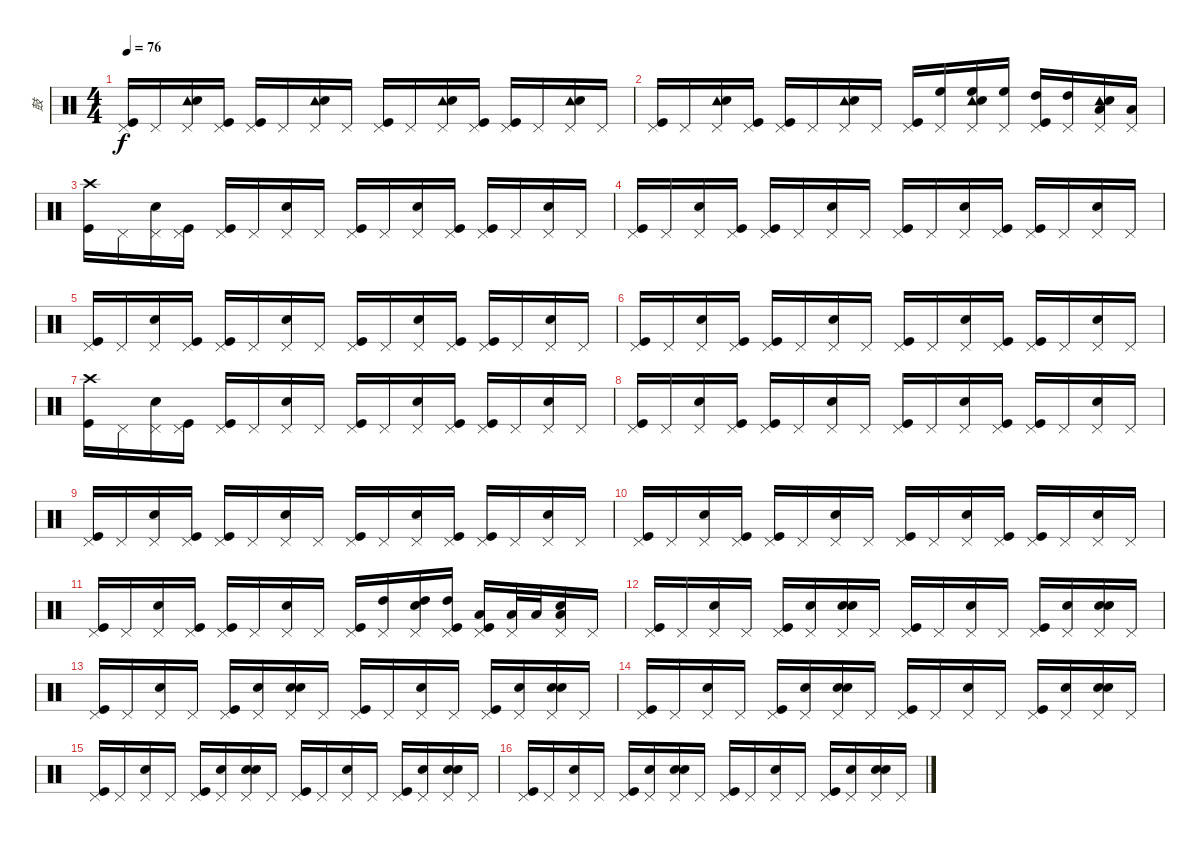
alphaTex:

\track ("鼓" "鼓") {instrument percussion}
\staff {score}
\articulation defaults
\ts (4 4)
\tempo 76
\clef neutral
\ks c
("Pedal Hi-Hat (hit)" "Kick (hit)").16{dy f} "Pedal Hi-Hat (hit)".16 ("Pedal Hi-Hat (hit)" "Tambourine (hit)" "Snare (hit) 2").16 ("Pedal Hi-Hat (hit)" "Kick (hit)").16 ("Pedal Hi-Hat (hit)" "Kick (hit)").16 "Pedal Hi-Hat (hit)".16 ("Pedal Hi-Hat (hit)" "Tambourine (hit)" "Snare (hit) 2").16 "Pedal Hi-Hat (hit)".16 ("Pedal Hi-Hat (hit)" "Kick (hit)").16 "Pedal Hi-Hat (hit)".16 ("Pedal Hi-Hat (hit)" "Tambourine (hit)" "Snare (hit) 2").16 ("Pedal Hi-Hat (hit)" "Kick (hit)").16 ("Pedal Hi-Hat (hit)" "Kick (hit)").16 "Pedal Hi-Hat (hit)".16 ("Pedal Hi-Hat (hit)" "Tambourine (hit)" "Snare (hit) 2").16 "Pedal Hi-Hat (hit)".16 |
("Pedal Hi-Hat (hit)" "Kick (hit)").16 "Pedal Hi-Hat (hit)".16 ("Pedal Hi-Hat (hit)" "Tambourine (hit)" "Snare (hit) 2").16 ("Pedal Hi-Hat (hit)" "Kick (hit)").16 ("Pedal Hi-Hat (hit)" "Kick (hit)").16 "Pedal Hi-Hat (hit)".16 ("Pedal Hi-Hat (hit)" "Tambourine (hit)" "Snare (hit) 2").16 "Pedal Hi-Hat (hit)".16 ("Pedal Hi-Hat (hit)" "Kick (hit)").16 ("Pedal Hi-Hat (hit)" "High Floor Tom (hit)").16 ("Pedal Hi-Hat (hit)" "Tambourine (hit)" "Snare (hit) 2" "High Floor Tom (hit)").16 ("Pedal Hi-Hat (hit)" "High Floor Tom (hit)").16 ("Pedal Hi-Hat (hit)" "Kick (hit)" "High Tom (hit)").16 ("Pedal Hi-Hat (hit)" "High Tom (hit)").16 ("Pedal Hi-Hat (hit)" "Tambourine (hit)" "Snare (hit) 2" "Low Tom (hit)").16 ("Pedal Hi-Hat (hit)" "Low Tom (hit)").16 |
("Crash high (hit)" "Kick (hit)").16 "Pedal Hi-Hat (hit)".16 ("Pedal Hi-Hat (hit)" "Snare (hit) 2").16 ("Pedal Hi-Hat (hit)" "Kick (hit)").16 ("Pedal Hi-Hat (hit)" "Kick (hit)").16 "Pedal Hi-Hat (hit)".16 ("Pedal Hi-Hat (hit)" "Snare (hit) 2").16 "Pedal Hi-Hat (hit)".16 ("Pedal Hi-Hat (hit)" "Kick (hit)").16 "Pedal Hi-Hat (hit)".16 ("Pedal Hi-Hat (hit)" "Snare (hit) 2").16 ("Pedal Hi-Hat (hit)" "Kick (hit)").16 ("Pedal Hi-Hat (hit)" "Kick (hit)").16 "Pedal Hi-Hat (hit)".16 ("Pedal Hi-Hat (hit)" "Snare (hit) 2").16 "Pedal Hi-Hat (hit)".16 |
("Pedal Hi-Hat (hit)" "Kick (hit)").16 "Pedal Hi-Hat (hit)".16 ("Pedal Hi-Hat (hit)" "Snare (hit) 2").16 ("Pedal Hi-Hat (hit)" "Kick (hit)").16 ("Pedal Hi-Hat (hit)" "Kick (hit)").16 "Pedal Hi-Hat (hit)".16 ("Pedal Hi-Hat (hit)" "Snare (hit) 2").16 "Pedal Hi-Hat (hit)".16 ("Pedal Hi-Hat (hit)" "Kick (hit)").16 "Pedal Hi-Hat (hit)".16 ("Pedal Hi-Hat (hit)" "Snare (hit) 2").16 ("Pedal Hi-Hat (hit)" "Kick (hit)").16 ("Pedal Hi-Hat (hit)" "Kick (hit)").16 "Pedal Hi-Hat (hit)".16 ("Pedal Hi-Hat (hit)" "Snare (hit) 2").16 "Pedal Hi-Hat (hit)".16 |
("Pedal Hi-Hat (hit)" "Kick (hit)").16 "Pedal Hi-Hat (hit)".16 ("Pedal Hi-Hat (hit)" "Snare (hit) 2").16 ("Pedal Hi-Hat (hit)" "Kick (hit)").16 ("Pedal Hi-Hat (hit)" "Kick (hit)").16 "Pedal Hi-Hat (hit)".16 ("Pedal Hi-Hat (hit)" "Snare (hit) 2").16 "Pedal Hi-Hat (hit)".16 ("Pedal Hi-Hat (hit)" "Kick (hit)").16 "Pedal Hi-Hat (hit)".16 ("Pedal Hi-Hat (hit)" "Snare (hit) 2").16 ("Pedal Hi-Hat (hit)" "Kick (hit)").16 ("Pedal Hi-Hat (hit)" "Kick (hit)").16 "Pedal Hi-Hat (hit)".16 ("Pedal Hi-Hat (hit)" "Snare (hit) 2").16 "Pedal Hi-Hat (hit)".16 |
("Pedal Hi-Hat (hit)" "Kick (hit)").16 "Pedal Hi-Hat (hit)".16 ("Pedal Hi-Hat (hit)" "Snare (hit) 2").16 ("Pedal Hi-Hat (hit)" "Kick (hit)").16 ("Pedal Hi-Hat (hit)" "Kick (hit)").16 "Pedal Hi-Hat (hit)".16 ("Pedal Hi-Hat (hit)" "Snare (hit) 2").16 "Pedal Hi-Hat (hit)".16 ("Pedal Hi-Hat (hit)" "Kick (hit)").16 "Pedal Hi-Hat (hit)".16 ("Pedal Hi-Hat (hit)" "Snare (hit) 2").16 ("Pedal Hi-Hat (hit)" "Kick (hit)").16 ("Pedal Hi-Hat (hit)" "Kick (hit)").16 "Pedal Hi-Hat (hit)".16 ("Pedal Hi-Hat (hit)" "Snare (hit) 2").16 "Pedal Hi-Hat (hit)".16 |
("Crash high (hit)" "Kick (hit)").16 "Pedal Hi-Hat (hit)".16 ("Pedal Hi-Hat (hit)" "Snare (hit) 2").16 ("Pedal Hi-Hat (hit)" "Kick (hit)").16 ("Pedal Hi-Hat (hit)" "Kick (hit)").16 "Pedal Hi-Hat (hit)".16 ("Pedal Hi-Hat (hit)" "Snare (hit) 2").16 "Pedal Hi-Hat (hit)".16 ("Pedal Hi-Hat (hit)" "Kick (hit)").16 "Pedal Hi-Hat (hit)".16 ("Pedal Hi-Hat (hit)" "Snare (hit) 2").16 ("Pedal Hi-Hat (hit)" "Kick (hit)").16 ("Pedal Hi-Hat (hit)" "Kick (hit)").16 "Pedal Hi-Hat (hit)".16 ("Pedal Hi-Hat (hit)" "Snare (hit) 2").16 "Pedal Hi-Hat (hit)".16 |
("Pedal Hi-Hat (hit)" "Kick (hit)").16 "Pedal Hi-Hat (hit)".16 ("Pedal Hi-Hat (hit)" "Snare (hit) 2").16 ("Pedal Hi-Hat (hit)" "Kick (hit)").16 ("Pedal Hi-Hat (hit)" "Kick (hit)").16 "Pedal Hi-Hat (hit)".16 ("Pedal Hi-Hat (hit)" "Snare (hit) 2").16 "Pedal Hi-Hat (hit)".16 ("Pedal Hi-Hat (hit)" "Kick (hit)").16 "Pedal Hi-Hat (hit)".16 ("Pedal Hi-Hat (hit)" "Snare (hit) 2").16 ("Pedal Hi-Hat (hit)" "Kick (hit)").16 ("Pedal Hi-Hat (hit)" "Kick (hit)").16 "Pedal Hi-Hat (hit)".16 ("Pedal Hi-Hat (hit)" "Snare (hit) 2").16 "Pedal Hi-Hat (hit)".16 |
("Pedal Hi-Hat (hit)" "Kick (hit)").16 "Pedal Hi-Hat (hit)".16 ("Pedal Hi-Hat (hit)" "Snare (hit) 2").16 ("Pedal Hi-Hat (hit)" "Kick (hit)").16 ("Pedal Hi-Hat (hit)" "Kick (hit)").16 "Pedal Hi-Hat (hit)".16 ("Pedal Hi-Hat (hit)" "Snare (hit) 2").16 "Pedal Hi-Hat (hit)".16 ("Pedal Hi-Hat (hit)" "Kick (hit)").16 "Pedal Hi-Hat (hit)".16 ("Pedal Hi-Hat (hit)" "Snare (hit) 2").16 ("Pedal Hi-Hat (hit)" "Kick (hit)").16 ("Pedal Hi-Hat (hit)" "Kick (hit)").16 "Pedal Hi-Hat (hit)".16 ("Pedal Hi-Hat (hit)" "Snare (hit) 2").16 "Pedal Hi-Hat (hit)".16 |
("Pedal Hi-Hat (hit)" "Kick (hit)").16 "Pedal Hi-Hat (hit)".16 ("Pedal Hi-Hat (hit)" "Snare (hit) 2").16 ("Pedal Hi-Hat (hit)" "Kick (hit)").16 ("Pedal Hi-Hat (hit)" "Kick (hit)").16 "Pedal Hi-Hat (hit)".16 ("Pedal Hi-Hat (hit)" "Snare (hit) 2").16 "Pedal Hi-Hat (hit)".16 ("Pedal Hi-Hat (hit)" "Kick (hit)").16 "Pedal Hi-Hat (hit)".16 ("Pedal Hi-Hat (hit)" "Snare (hit) 2").16 ("Pedal Hi-Hat (hit)" "Kick (hit)").16 ("Pedal Hi-Hat (hit)" "Kick (hit)").16 "Pedal Hi-Hat (hit)".16 ("Pedal Hi-Hat (hit)" "Snare (hit) 2").16 "Pedal Hi-Hat (hit)".16 |
("Pedal Hi-Hat (hit)" "Kick (hit)").16 "Pedal Hi-Hat (hit)".16 ("Pedal Hi-Hat (hit)" "Snare (hit) 2").16 ("Pedal Hi-Hat (hit)" "Kick (hit)").16 ("Pedal Hi-Hat (hit)" "Kick (hit)").16 "Pedal Hi-Hat (hit)".16 ("Pedal Hi-Hat (hit)" "Snare (hit) 2").16 "Pedal Hi-Hat (hit)".16 ("Pedal Hi-Hat (hit)" "Kick (hit)").16 ("Pedal Hi-Hat (hit)" "High Tom (hit)").16 ("Pedal Hi-Hat (hit)" "High Tom (hit)" "Snare (hit) 2").16 ("Pedal Hi-Hat (hit)" "High Tom (hit)" "Kick (hit)").16 ("Pedal Hi-Hat (hit)" "Low Tom (hit)" "Kick (hit)").16 ("Pedal Hi-Hat (hit)" "Low Tom (hit)").32 "Low Tom (hit)".32 ("Pedal Hi-Hat (hit)" "Low Tom (hit)" "Snare (hit) 2").16 "Pedal Hi-Hat (hit)".16 |
("Pedal Hi-Hat (hit)" "Kick (hit)").16 "Pedal Hi-Hat (hit)".16 ("Pedal Hi-Hat (hit)" "Snare (hit) 2").16 "Pedal Hi-Hat (hit)".16 ("Pedal Hi-Hat (hit)" "Kick (hit)").16 ("Pedal Hi-Hat (hit)" "Hand Clap (hit)").16 ("Pedal Hi-Hat (hit)" "Hand Clap (hit)" "Snare (hit) 2").16 "Pedal Hi-Hat (hit)".16 ("Pedal Hi-Hat (hit)" "Kick (hit)").16 "Pedal Hi-Hat (hit)".16 ("Pedal Hi-Hat (hit)" "Snare (hit) 2").16 "Pedal Hi-Hat (hit)".16 ("Pedal Hi-Hat (hit)" "Kick (hit)").16 ("Pedal Hi-Hat (hit)" "Hand Clap (hit)").16 ("Pedal Hi-Hat (hit)" "Hand Clap (hit)" "Snare (hit) 2").16 "Pedal Hi-Hat (hit)".16 |
("Pedal Hi-Hat (hit)" "Kick (hit)").16 "Pedal Hi-Hat (hit)".16 ("Pedal Hi-Hat (hit)" "Snare (hit) 2").16 "Pedal Hi-Hat (hit)".16 ("Pedal Hi-Hat (hit)" "Kick (hit)").16 ("Pedal Hi-Hat (hit)" "Hand Clap (hit)").16 ("Pedal Hi-Hat (hit)" "Hand Clap (hit)" "Snare (hit) 2").16 "Pedal Hi-Hat (hit)".16 ("Pedal Hi-Hat (hit)" "Kick (hit)").16 "Pedal Hi-Hat (hit)".16 ("Pedal Hi-Hat (hit)" "Snare (hit) 2").16 "Pedal Hi-Hat (hit)".16 ("Pedal Hi-Hat (hit)" "Kick (hit)").16 ("Pedal Hi-Hat (hit)" "Hand Clap (hit)").16 ("Pedal Hi-Hat (hit)" "Hand Clap (hit)" "Snare (hit) 2").16 "Pedal Hi-Hat (hit)".16 |
("Pedal Hi-Hat (hit)" "Kick (hit)").16 "Pedal Hi-Hat (hit)".16 ("Pedal Hi-Hat (hit)" "Snare (hit) 2").16 "Pedal Hi-Hat (hit)".16 ("Pedal Hi-Hat (hit)" "Kick (hit)").16 ("Pedal Hi-Hat (hit)" "Hand Clap (hit)").16 ("Pedal Hi-Hat (hit)" "Hand Clap (hit)" "Snare (hit) 2").16 "Pedal Hi-Hat (hit)".16 ("Pedal Hi-Hat (hit)" "Kick (hit)").16 "Pedal Hi-Hat (hit)".16 ("Pedal Hi-Hat (hit)" "Snare (hit) 2").16 "Pedal Hi-Hat (hit)".16 ("Pedal Hi-Hat (hit)" "Kick (hit)").16 ("Pedal Hi-Hat (hit)" "Hand Clap (hit)").16 ("Pedal Hi-Hat (hit)" "Hand Clap (hit)" "Snare (hit) 2").16 "Pedal Hi-Hat (hit)".16 |
("Pedal Hi-Hat (hit)" "Kick (hit)").16 "Pedal Hi-Hat (hit)".16 ("Pedal Hi-Hat (hit)" "Snare (hit) 2").16 "Pedal Hi-Hat (hit)".16 ("Pedal Hi-Hat (hit)" "Kick (hit)").16 ("Pedal Hi-Hat (hit)" "Hand Clap (hit)").16 ("Pedal Hi-Hat (hit)" "Hand Clap (hit)" "Snare (hit) 2").16 "Pedal Hi-Hat (hit)".16 ("Pedal Hi-Hat (hit)" "Kick (hit)").16 "Pedal Hi-Hat (hit)".16 ("Pedal Hi-Hat (hit)" "Snare (hit) 2").16 "Pedal Hi-Hat (hit)".16 ("Pedal Hi-Hat (hit)" "Kick (hit)").16 ("Pedal Hi-Hat (hit)" "Hand Clap (hit)").16 ("Pedal Hi-Hat (hit)" "Hand Clap (hit)" "Snare (hit) 2").16 "Pedal Hi-Hat (hit)".16 |
("Pedal Hi-Hat (hit)" "Kick (hit)").16 "Pedal Hi-Hat (hit)".16 ("Pedal Hi-Hat (hit)" "Snare (hit) 2").16 "Pedal Hi-Hat (hit)".16 ("Pedal Hi-Hat (hit)" "Kick (hit)").16 ("Pedal Hi-Hat (hit)" "Hand Clap (hit)").16 ("Pedal Hi-Hat (hit)" "Hand Clap (hit)" "Snare (hit) 2").16 "Pedal Hi-Hat (hit)".16 ("Pedal Hi-Hat (hit)" "Kick (hit)").16 "Pedal Hi-Hat (hit)".16 ("Pedal Hi-Hat (hit)" "Snare (hit) 2").16 "Pedal Hi-Hat (hit)".16 ("Pedal Hi-Hat (hit)" "Kick (hit)").16 ("Pedal Hi-Hat (hit)" "Hand Clap (hit)").16 ("Pedal Hi-Hat (hit)" "Hand Clap (hit)" "Snare (hit) 2").16 "Pedal Hi-Hat (hit)".16
